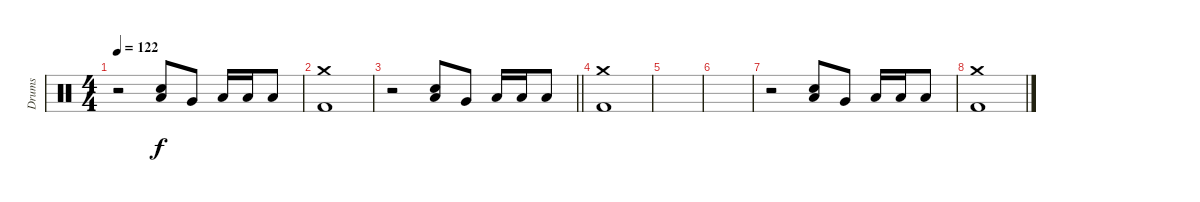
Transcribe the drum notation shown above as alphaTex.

\track ("Drums" "Drums") {instrument percussion}
\staff {score}
\articulation defaults
\ts (4 4)
\tempo 122
\clef neutral
\ks c
r.2{dy f} ("Low Tom (hit)" "Electric Snare (hit)").8 "Very Low Tom (hit)".8 "Low Tom (hit)".16 "Low Tom (hit)".16 "Low Tom (hit)".8 |
("Crash medium (hit)" "Kick (hit) 2").1 |
\barLineRight lightlight
r.2 ("Low Tom (hit)" "Electric Snare (hit)").8 "Very Low Tom (hit)".8 "Low Tom (hit)".16 "Low Tom (hit)".16 "Low Tom (hit)".8 |
\section ("" "")
("Crash medium (hit)" "Kick (hit) 2").1 |
|
|
r.2 ("Low Tom (hit)" "Electric Snare (hit)").8 "Very Low Tom (hit)".8 "Low Tom (hit)".16 "Low Tom (hit)".16 "Low Tom (hit)".8 |
("Crash medium (hit)" "Kick (hit) 2").1
